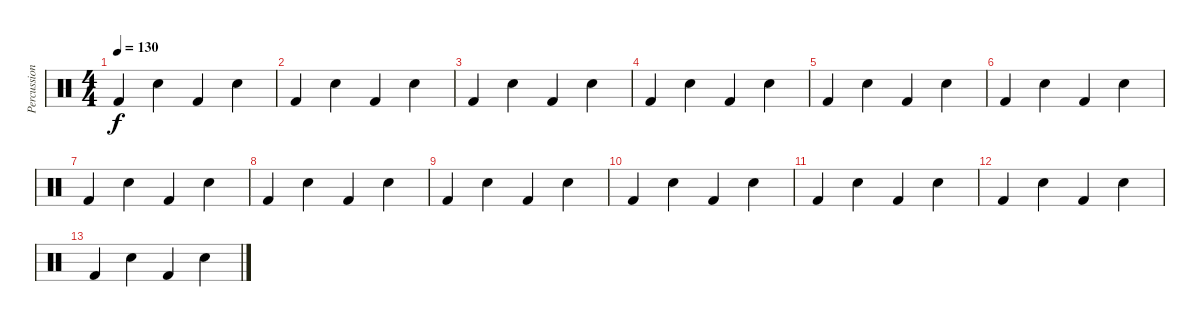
\track ("Percussion 2" "Percussion") {instrument percussion}
\staff {score}
\articulation defaults
\ts (4 4)
\tempo 130
\clef neutral
\ks c "Kick (hit) 2".4{dy f} "Electric Snare (hit)".4 "Kick (hit) 2".4 "Electric Snare (hit)".4
|
"Kick (hit) 2".4 "Electric Snare (hit)".4 "Kick (hit) 2".4 "Electric Snare (hit)".4 |
"Kick (hit) 2".4 "Electric Snare (hit)".4 "Kick (hit) 2".4 "Electric Snare (hit)".4 |
"Kick (hit) 2".4 "Electric Snare (hit)".4 "Kick (hit) 2".4 "Electric Snare (hit)".4 |
"Kick (hit) 2".4 "Electric Snare (hit)".4 "Kick (hit) 2".4 "Electric Snare (hit)".4 |
"Kick (hit) 2".4 "Electric Snare (hit)".4 "Kick (hit) 2".4 "Electric Snare (hit)".4 |
"Kick (hit) 2".4 "Electric Snare (hit)".4 "Kick (hit) 2".4 "Electric Snare (hit)".4 |
"Kick (hit) 2".4 "Electric Snare (hit)".4 "Kick (hit) 2".4 "Electric Snare (hit)".4 |
"Kick (hit) 2".4 "Electric Snare (hit)".4 "Kick (hit) 2".4 "Electric Snare (hit)".4 |
"Kick (hit) 2".4 "Electric Snare (hit)".4 "Kick (hit) 2".4 "Electric Snare (hit)".4 |
"Kick (hit) 2".4 "Electric Snare (hit)".4 "Kick (hit) 2".4 "Electric Snare (hit)".4 |
"Kick (hit) 2".4 "Electric Snare (hit)".4 "Kick (hit) 2".4 "Electric Snare (hit)".4 |
"Kick (hit) 2".4 "Electric Snare (hit)".4 "Kick (hit) 2".4 "Electric Snare (hit)".4
